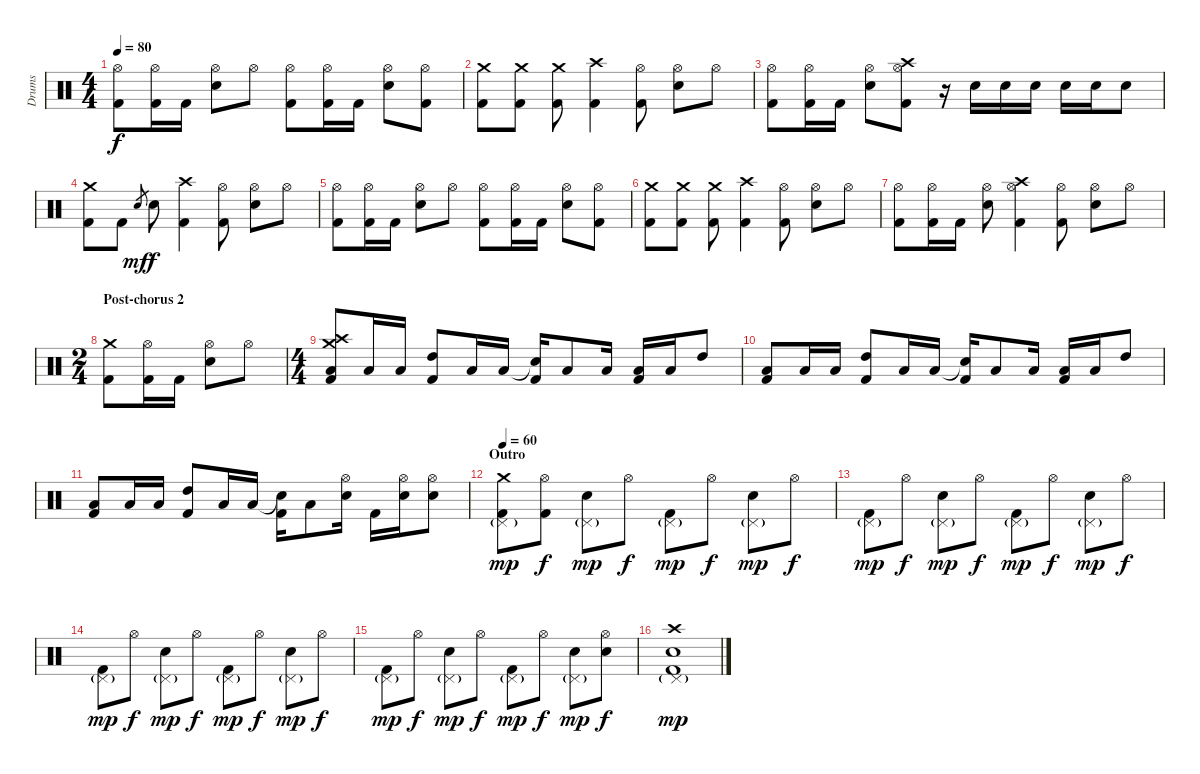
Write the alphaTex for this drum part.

\track ("Drums" "Drums") {instrument percussion}
\staff {score}
\articulation defaults
\ts (4 4)
\tempo 80
\clef neutral
\ks c
("Hi-Hat (open)" "Kick (hit) 2").8{dy f} ("Hi-Hat (open)" "Kick (hit) 2").16 "Kick (hit) 2".16 ("Hi-Hat (open)" "Electric Snare (hit)").8 "Hi-Hat (open)".8 ("Hi-Hat (open)" "Kick (hit) 2").8 ("Hi-Hat (open)" "Kick (hit) 2").16 "Kick (hit) 2".16 ("Hi-Hat (open)" "Electric Snare (hit)").8 ("Hi-Hat (open)" "Kick (hit) 2").8 |
("Crash medium (hit)" "Kick (hit) 2").8 ("Crash medium (hit)" "Kick (hit) 2").8 ("Crash medium (hit)" "Kick (hit) 2").8 ("Crash high (hit)" "Kick (hit) 2").4 ("Hi-Hat (open)" "Kick (hit) 2").8 ("Hi-Hat (open)" "Electric Snare (hit)").8 "Hi-Hat (open)".8 |
("Hi-Hat (open)" "Kick (hit) 2").8 ("Hi-Hat (open)" "Kick (hit) 2").16 "Kick (hit) 2".16 ("Hi-Hat (open)" "Electric Snare (hit)").8 ("Hi-Hat (open)" "Crash high (hit)" "Kick (hit) 2").8 r.16 "Electric Snare (hit)".16 "Electric Snare (hit)".16 "Electric Snare (hit)".16 "Electric Snare (hit)".16 "Electric Snare (hit)".16 "Electric Snare (hit)".8 |
("Crash medium (hit)" "Kick (hit) 2").8 "Kick (hit) 2".8 "Electric Snare (hit)".8{gr dy mf} "Electric Snare (hit)".8{dy f} ("Crash high (hit)" "Kick (hit) 2").4 ("Hi-Hat (open)" "Kick (hit) 2").8 ("Hi-Hat (open)" "Electric Snare (hit)").8 "Hi-Hat (open)".8 |
("Hi-Hat (open)" "Kick (hit) 2").8 ("Hi-Hat (open)" "Kick (hit) 2").16 "Kick (hit) 2".16 ("Hi-Hat (open)" "Electric Snare (hit)").8 "Hi-Hat (open)".8 ("Hi-Hat (open)" "Kick (hit) 2").8 ("Hi-Hat (open)" "Kick (hit) 2").16 "Kick (hit) 2".16 ("Hi-Hat (open)" "Electric Snare (hit)").8 ("Hi-Hat (open)" "Kick (hit) 2").8 |
("Crash medium (hit)" "Kick (hit) 2").8 ("Crash medium (hit)" "Kick (hit) 2").8 ("Crash medium (hit)" "Kick (hit) 2").8 ("Crash high (hit)" "Kick (hit) 2").4 ("Hi-Hat (open)" "Kick (hit) 2").8 ("Hi-Hat (open)" "Electric Snare (hit)").8 "Hi-Hat (open)".8 |
("Hi-Hat (open)" "Kick (hit) 2").8 ("Hi-Hat (open)" "Kick (hit) 2").16 "Kick (hit) 2".16 ("Hi-Hat (open)" "Electric Snare (hit)").8 ("Hi-Hat (open)" "Crash high (hit)" "Kick (hit) 2").4 ("Hi-Hat (open)" "Kick (hit) 2").8 ("Hi-Hat (open)" "Electric Snare (hit)").8 "Hi-Hat (open)".8 |
\ts (2 4)
\section ("" "Post-chorus 2")
("Crash medium (hit)" "Kick (hit) 2").8 ("Hi-Hat (open)" "Kick (hit) 2").16 "Kick (hit) 2".16 ("Hi-Hat (open)" "Electric Snare (hit)").8 "Hi-Hat (open)".8 |
\ts (4 4)
("Crash high (hit)" "Crash medium (hit)" "Low Tom (hit)" "Kick (hit) 2").8 "Low Tom (hit)".16 "Low Tom (hit)".16 ("High Tom (hit)" "Kick (hit) 2").8 "Low Tom (hit)".16 "Low Tom (hit)".16 ("Snare (hit)"{t} "Kick (hit) 2").16 "Low Tom (hit)".8 "Low Tom (hit)".16 ("Low Tom (hit)" "Kick (hit) 2").16 "Low Tom (hit)".16 "High Tom (hit)".8 |
("Low Tom (hit)" "Kick (hit) 2").8 "Low Tom (hit)".16 "Low Tom (hit)".16 ("High Tom (hit)" "Kick (hit) 2").8 "Low Tom (hit)".16 "Low Tom (hit)".16 ("Snare (hit)"{t} "Kick (hit) 2").16 "Low Tom (hit)".8 "Low Tom (hit)".16 ("Low Tom (hit)" "Kick (hit) 2").16 "Low Tom (hit)".16 "High Tom (hit)".8 |
("Low Tom (hit)" "Kick (hit) 2").8 "Low Tom (hit)".16 "Low Tom (hit)".16 ("High Tom (hit)" "Kick (hit) 2").8 "Low Tom (hit)".16 "Low Tom (hit)".16 ("Snare (hit)"{t} "Kick (hit) 2").16 "Low Tom (hit)".8 ("Hi-Hat (open)" "Electric Snare (hit)").16 "Kick (hit) 2".16 ("Hi-Hat (open)" "Electric Snare (hit)").16 ("Hi-Hat (open)" "Electric Snare (hit)").8 |
\section ("" "Outro")
\tempo 60
("Pedal Hi-Hat (hit)"{g} "Crash medium (hit)" "Kick (hit) 2").8{dy mp} ("Hi-Hat (open)" "Kick (hit) 2").8{dy f} ("Pedal Hi-Hat (hit)"{g} "Electric Snare (hit)").8{dy mp} "Hi-Hat (open)".8{dy f} ("Pedal Hi-Hat (hit)"{g} "Kick (hit) 2").8{dy mp} "Hi-Hat (open)".8{dy f} ("Pedal Hi-Hat (hit)"{g} "Electric Snare (hit)").8{dy mp} "Hi-Hat (open)".8{dy f} |
("Pedal Hi-Hat (hit)"{g} "Kick (hit) 2").8{dy mp} "Hi-Hat (open)".8{dy f} ("Pedal Hi-Hat (hit)"{g} "Electric Snare (hit)").8{dy mp} "Hi-Hat (open)".8{dy f} ("Pedal Hi-Hat (hit)"{g} "Kick (hit) 2").8{dy mp} "Hi-Hat (open)".8{dy f} ("Pedal Hi-Hat (hit)"{g} "Electric Snare (hit)").8{dy mp} "Hi-Hat (open)".8{dy f} |
("Pedal Hi-Hat (hit)"{g} "Kick (hit) 2").8{dy mp} "Hi-Hat (open)".8{dy f} ("Pedal Hi-Hat (hit)"{g} "Electric Snare (hit)").8{dy mp} "Hi-Hat (open)".8{dy f} ("Pedal Hi-Hat (hit)"{g} "Kick (hit) 2").8{dy mp} "Hi-Hat (open)".8{dy f} ("Pedal Hi-Hat (hit)"{g} "Electric Snare (hit)").8{dy mp} "Hi-Hat (open)".8{dy f} |
("Pedal Hi-Hat (hit)"{g} "Kick (hit) 2").8{dy mp} "Hi-Hat (open)".8{dy f} ("Pedal Hi-Hat (hit)"{g} "Electric Snare (hit)").8{dy mp} "Hi-Hat (open)".8{dy f} ("Pedal Hi-Hat (hit)"{g} "Kick (hit) 2").8{dy mp} "Hi-Hat (open)".8{dy f} ("Pedal Hi-Hat (hit)"{g} "Electric Snare (hit)").8{dy mp} ("Hi-Hat (open)" "Electric Snare (hit)").8{dy f} |
("Pedal Hi-Hat (hit)"{g} "Crash high (hit)" "Electric Snare (hit)" "Kick (hit) 2").1{dy mp}
